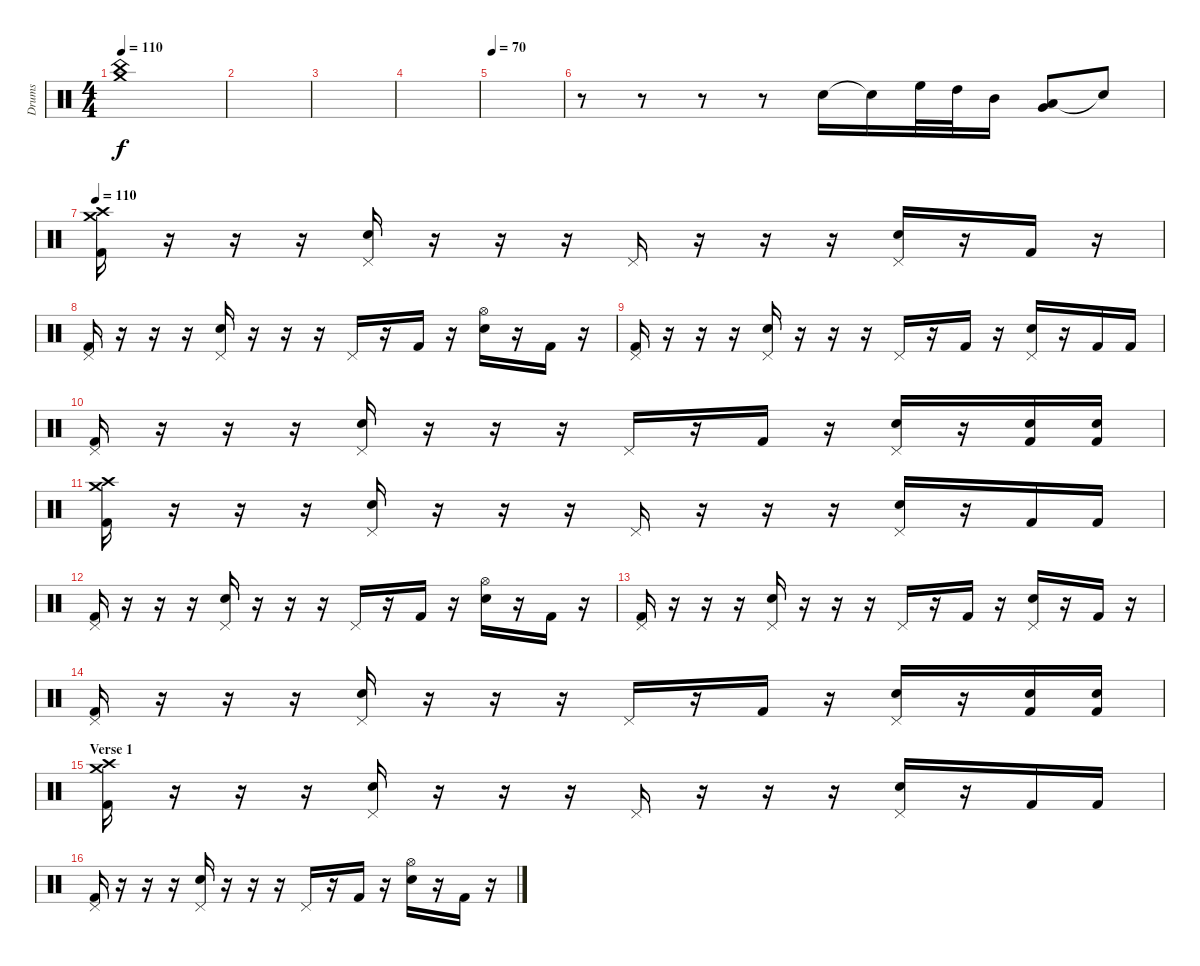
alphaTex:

\track ("Drums" "Drums") {instrument percussion}
\staff {score}
\articulation defaults
\ts (4 4)
\tempo 110
\tempo 98
\tempo 110
\clef neutral
\ks c
("China (hit)" "Crash medium (hit)").1{dy f} |
|
|
|
\tempo 70
|
r.8 r.8 r.8 r.8 "Electric Snare (hit)".16 "Snare (hit)"{t}.16 "High Floor Tom (hit)".32 "High Tom (hit)".32 "Mid Tom (hit)".16 ("Low Floor Tom (hit)" "Very Low Tom (hit)").8 "Snare (hit)"{t}.8 |
\tempo 110
("Crash high (hit)" "Crash medium (hit)" "Kick (hit) 2").16 r.16 r.16 r.16 ("Pedal Hi-Hat (hit)" "Electric Snare (hit)").16 r.16 r.16 r.16 "Pedal Hi-Hat (hit)".16 r.16 r.16 r.16 ("Pedal Hi-Hat (hit)" "Electric Snare (hit)").16 r.16 "Kick (hit) 2".16 r.16 |
("Pedal Hi-Hat (hit)" "Kick (hit) 2").16 r.16 r.16 r.16 ("Pedal Hi-Hat (hit)" "Electric Snare (hit)").16 r.16 r.16 r.16 "Pedal Hi-Hat (hit)".16 r.16 "Kick (hit) 2".16 r.16 ("Hi-Hat (open)" "Electric Snare (hit)").16 r.16 "Kick (hit) 2".16 r.16 |
("Pedal Hi-Hat (hit)" "Kick (hit) 2").16 r.16 r.16 r.16 ("Pedal Hi-Hat (hit)" "Electric Snare (hit)").16 r.16 r.16 r.16 "Pedal Hi-Hat (hit)".16 r.16 "Kick (hit) 2".16 r.16 ("Pedal Hi-Hat (hit)" "Electric Snare (hit)").16 r.16 "Kick (hit) 2".16 "Kick (hit) 2".16 |
("Pedal Hi-Hat (hit)" "Kick (hit) 2").16 r.16 r.16 r.16 ("Pedal Hi-Hat (hit)" "Electric Snare (hit)").16 r.16 r.16 r.16 "Pedal Hi-Hat (hit)".16 r.16 "Kick (hit) 2".16 r.16 ("Pedal Hi-Hat (hit)" "Electric Snare (hit)").16 r.16 ("Electric Snare (hit)" "Kick (hit) 2").16 ("Electric Snare (hit)" "Kick (hit) 2").16 |
("Crash high (hit)" "Crash medium (hit)" "Kick (hit) 2").16 r.16 r.16 r.16 ("Pedal Hi-Hat (hit)" "Electric Snare (hit)").16 r.16 r.16 r.16 "Pedal Hi-Hat (hit)".16 r.16 r.16 r.16 ("Pedal Hi-Hat (hit)" "Electric Snare (hit)").16 r.16 "Kick (hit) 2".16 "Kick (hit) 2".16 |
("Pedal Hi-Hat (hit)" "Kick (hit) 2").16 r.16 r.16 r.16 ("Pedal Hi-Hat (hit)" "Electric Snare (hit)").16 r.16 r.16 r.16 "Pedal Hi-Hat (hit)".16 r.16 "Kick (hit) 2".16 r.16 ("Hi-Hat (open)" "Electric Snare (hit)").16 r.16 "Kick (hit) 2".16 r.16 |
("Pedal Hi-Hat (hit)" "Kick (hit) 2").16 r.16 r.16 r.16 ("Pedal Hi-Hat (hit)" "Electric Snare (hit)").16 r.16 r.16 r.16 "Pedal Hi-Hat (hit)".16 r.16 "Kick (hit) 2".16 r.16 ("Pedal Hi-Hat (hit)" "Electric Snare (hit)").16 r.16 "Kick (hit) 2".16 r.16 |
("Pedal Hi-Hat (hit)" "Kick (hit) 2").16 r.16 r.16 r.16 ("Pedal Hi-Hat (hit)" "Electric Snare (hit)").16 r.16 r.16 r.16 "Pedal Hi-Hat (hit)".16 r.16 "Kick (hit) 2".16 r.16 ("Pedal Hi-Hat (hit)" "Electric Snare (hit)").16 r.16 ("Electric Snare (hit)" "Kick (hit) 2").16 ("Electric Snare (hit)" "Kick (hit) 2").16 |
\section ("" "Verse 1")
("Crash high (hit)" "Crash medium (hit)" "Kick (hit) 2").16 r.16 r.16 r.16 ("Pedal Hi-Hat (hit)" "Electric Snare (hit)").16 r.16 r.16 r.16 "Pedal Hi-Hat (hit)".16 r.16 r.16 r.16 ("Pedal Hi-Hat (hit)" "Electric Snare (hit)").16 r.16 "Kick (hit) 2".16 "Kick (hit) 2".16 |
("Pedal Hi-Hat (hit)" "Kick (hit) 2").16 r.16 r.16 r.16 ("Pedal Hi-Hat (hit)" "Electric Snare (hit)").16 r.16 r.16 r.16 "Pedal Hi-Hat (hit)".16 r.16 "Kick (hit) 2".16 r.16 ("Hi-Hat (open)" "Electric Snare (hit)").16 r.16 "Kick (hit) 2".16 r.16
